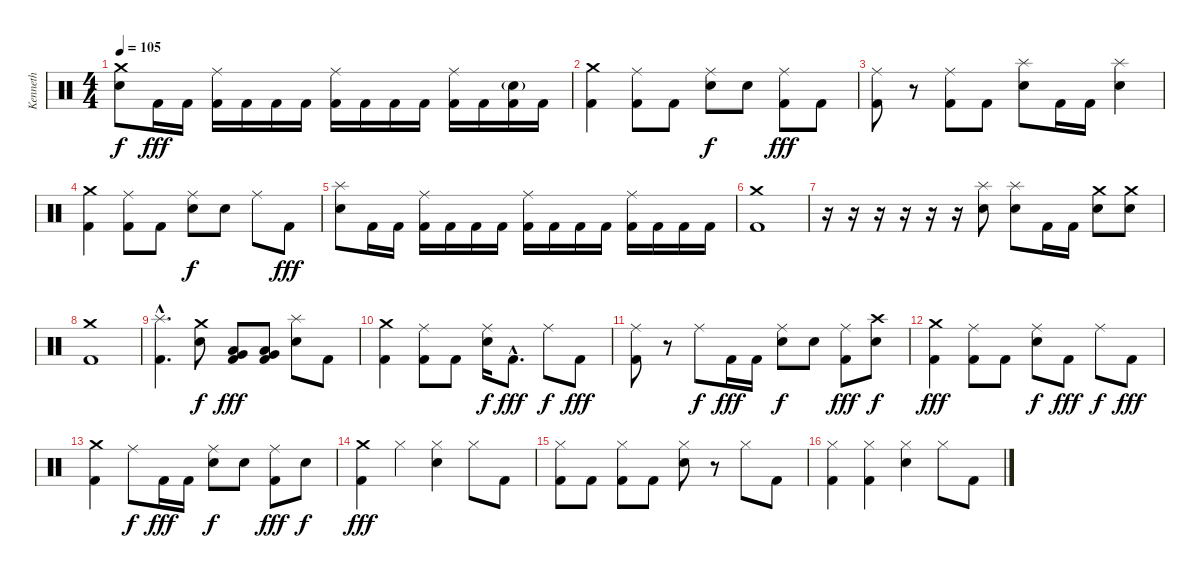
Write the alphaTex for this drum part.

\track ("Kenneth" "Kenneth") {instrument percussion}
\staff {score}
\articulation defaults
\ts (4 4)
\tempo 105
\clef neutral
\ks c
("Crash medium (hit)" "Electric Snare (hit)").8{dy f} "Kick (hit) 2".16{dy fff} "Kick (hit) 2".16 ("Ride (middle)" "Kick (hit) 2").16 "Kick (hit) 2".16 "Kick (hit) 2".16 "Kick (hit) 2".16 ("Ride (middle)" "Kick (hit) 2").16 "Kick (hit) 2".16 "Kick (hit) 2".16 "Kick (hit) 2".16 ("Ride (middle)" "Kick (hit) 2").16 "Kick (hit) 2".16 ("Electric Snare (hit)"{g} "Kick (hit) 2").16 "Kick (hit) 2".16 |
("Crash medium (hit)" "Kick (hit) 2").4 ("Ride (middle)" "Kick (hit) 2").8 "Kick (hit) 2".8 ("Ride (middle)" "Electric Snare (hit)").8{dy f} "Electric Snare (hit)".8 ("Ride (middle)" "Kick (hit) 2").8{dy fff} "Kick (hit) 2".8 |
("Ride (middle)" "Kick (hit) 2").8 r.8 ("Ride (middle)" "Kick (hit) 2").8 "Kick (hit) 2".8 ("Splash (hit)" "Electric Snare (hit)").8 "Kick (hit) 2".16 "Kick (hit) 2".16 ("Splash (hit)" "Electric Snare (hit)").4 |
("Crash medium (hit)" "Kick (hit) 2").4 ("Ride (middle)" "Kick (hit) 2").8 "Kick (hit) 2".8 ("Ride (middle)" "Electric Snare (hit)").8{dy f} "Electric Snare (hit)".8 "Ride (middle)".8 "Kick (hit) 2".8{dy fff} |
("Splash (hit)" "Electric Snare (hit)").8 "Kick (hit) 2".16 "Kick (hit) 2".16 ("Ride (middle)" "Kick (hit) 2").16 "Kick (hit) 2".16 "Kick (hit) 2".16 "Kick (hit) 2".16 ("Ride (middle)" "Kick (hit) 2").16 "Kick (hit) 2".16 "Kick (hit) 2".16 "Kick (hit) 2".16 ("Ride (middle)" "Kick (hit) 2").16 "Kick (hit) 2".16 "Kick (hit) 2".16 "Kick (hit) 2".16 |
("Crash medium (hit)" "Kick (hit) 2").1 |
r.16 r.16 r.16 r.16 r.16 r.16 ("Splash (hit)" "Electric Snare (hit)").8 ("Splash (hit)" "Electric Snare (hit)").8 "Kick (hit) 2".16 "Kick (hit) 2".16 ("Crash medium (hit)" "Electric Snare (hit)").8 ("Crash medium (hit)" "Electric Snare (hit)").8 |
("Crash medium (hit)" "Kick (hit) 2").1 |
("Splash (hit)"{hac} "Kick (hit) 2"{hac}).4{d} ("Crash medium (hit)" "Electric Snare (hit)").8{dy f} ("Very Low Tom (hit)" "Low Tom (hit)" "Kick (hit) 2").8{dy fff} ("Low Floor Tom (hit)" "Very Low Tom (hit)" "Kick (hit) 2").8 ("Splash (hit)" "Electric Snare (hit)").8 "Kick (hit) 2".8 |
("Crash medium (hit)" "Kick (hit) 2").4 ("Ride (middle)" "Kick (hit) 2").8 "Kick (hit) 2".8 ("Ride (middle)" "Electric Snare (hit)").16{dy f} "Kick (hit) 2"{hac}.8{d dy fff} "Ride (middle)".8{dy f} "Kick (hit) 2".8{dy fff} |
("Ride (middle)" "Kick (hit) 2").8 r.8 "Ride (middle)".8{dy f} "Kick (hit) 2".16{dy fff} "Kick (hit) 2".16 ("Ride (middle)" "Electric Snare (hit)").8{dy f} "Electric Snare (hit)".8 ("Ride (middle)" "Kick (hit) 2").8{dy fff} ("Crash high (hit)" "Electric Snare (hit)").8{dy f} |
("Crash medium (hit)" "Kick (hit) 2").4{dy fff} ("Ride (middle)" "Kick (hit) 2").8 "Kick (hit) 2".8 ("Ride (middle)" "Electric Snare (hit)").8{dy f} "Kick (hit) 2".8{dy fff} "Ride (middle)".8{dy f} "Kick (hit) 2".8{dy fff} |
("Crash medium (hit)" "Kick (hit) 2").4 "Ride (middle)".8{dy f} "Kick (hit) 2".16{dy fff} "Kick (hit) 2".16 ("Ride (middle)" "Electric Snare (hit)").8{dy f} "Electric Snare (hit)".8 ("Ride (middle)" "Kick (hit) 2").8{dy fff} "Electric Snare (hit)".8{dy f} |
("Crash medium (hit)" "Kick (hit) 2").4{dy fff} "Hi-Hat (closed)".4 ("Hi-Hat (closed)" "Electric Snare (hit)").4 "Hi-Hat (closed)".8 "Kick (hit) 2".8 |
("Hi-Hat (closed)" "Kick (hit) 2").8 "Kick (hit) 2".8 ("Hi-Hat (closed)" "Kick (hit) 2").8 "Kick (hit) 2".8 ("Hi-Hat (closed)" "Electric Snare (hit)").8 r.8 "Hi-Hat (closed)".8 "Kick (hit) 2".8 |
("Hi-Hat (closed)" "Kick (hit) 2").4 ("Hi-Hat (closed)" "Kick (hit) 2").4 ("Hi-Hat (closed)" "Electric Snare (hit)").4 "Hi-Hat (closed)".8 "Kick (hit) 2".8
